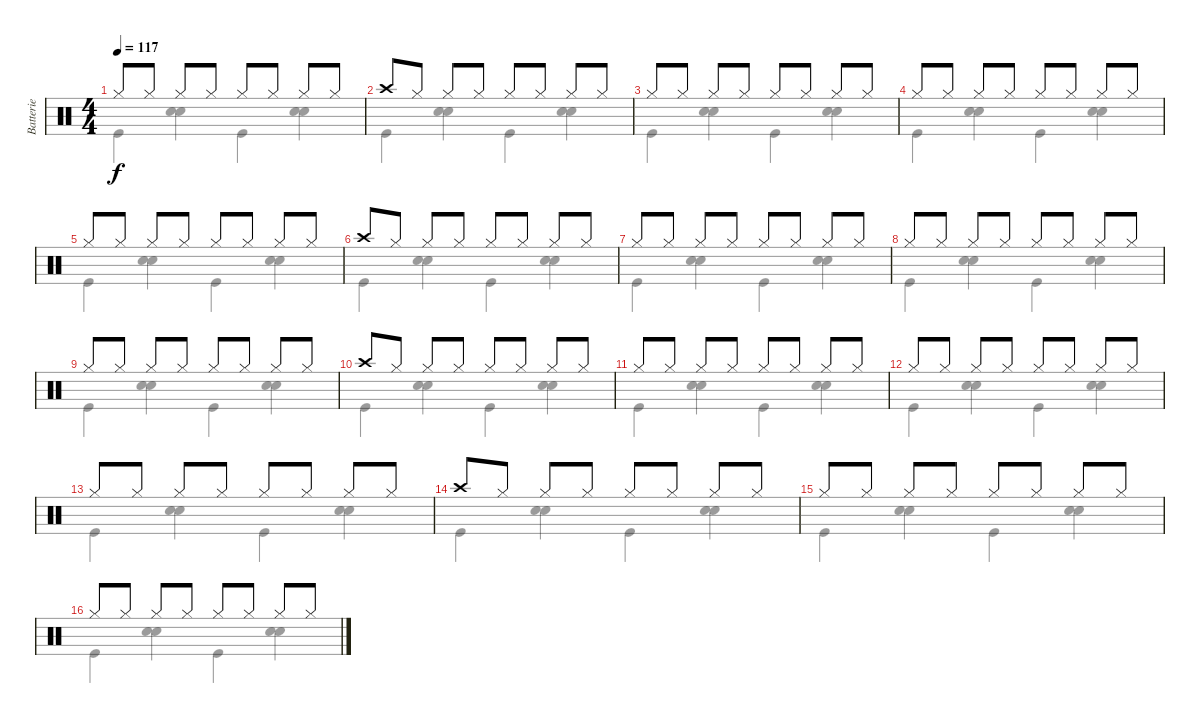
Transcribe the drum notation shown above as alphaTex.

\track ("Batterie" "Batterie") {instrument percussion}
\staff {score}
\articulation defaults
\voice
\ts (4 4)
\tempo 117
\clef neutral
\ks c "Hi-Hat (closed)".8{dy f} "Hi-Hat (closed)".8 "Hi-Hat (closed)".8 "Hi-Hat (closed)".8 "Hi-Hat (closed)".8 "Hi-Hat (closed)".8 "Hi-Hat (closed)".8 "Hi-Hat (closed)".8
|
"Crash high (hit)".8 "Hi-Hat (closed)".8 "Hi-Hat (closed)".8 "Hi-Hat (closed)".8 "Hi-Hat (closed)".8 "Hi-Hat (closed)".8 "Hi-Hat (closed)".8 "Hi-Hat (closed)".8 |
"Hi-Hat (closed)".8 "Hi-Hat (closed)".8 "Hi-Hat (closed)".8 "Hi-Hat (closed)".8 "Hi-Hat (closed)".8 "Hi-Hat (closed)".8 "Hi-Hat (closed)".8 "Hi-Hat (closed)".8 |
"Hi-Hat (closed)".8 "Hi-Hat (closed)".8 "Hi-Hat (closed)".8 "Hi-Hat (closed)".8 "Hi-Hat (closed)".8 "Hi-Hat (closed)".8 "Hi-Hat (closed)".8 "Hi-Hat (closed)".8 |
"Hi-Hat (closed)".8 "Hi-Hat (closed)".8 "Hi-Hat (closed)".8 "Hi-Hat (closed)".8 "Hi-Hat (closed)".8 "Hi-Hat (closed)".8 "Hi-Hat (closed)".8 "Hi-Hat (closed)".8 |
"Crash high (hit)".8 "Hi-Hat (closed)".8 "Hi-Hat (closed)".8 "Hi-Hat (closed)".8 "Hi-Hat (closed)".8 "Hi-Hat (closed)".8 "Hi-Hat (closed)".8 "Hi-Hat (closed)".8 |
"Hi-Hat (closed)".8 "Hi-Hat (closed)".8 "Hi-Hat (closed)".8 "Hi-Hat (closed)".8 "Hi-Hat (closed)".8 "Hi-Hat (closed)".8 "Hi-Hat (closed)".8 "Hi-Hat (closed)".8 |
"Hi-Hat (closed)".8 "Hi-Hat (closed)".8 "Hi-Hat (closed)".8 "Hi-Hat (closed)".8 "Hi-Hat (closed)".8 "Hi-Hat (closed)".8 "Hi-Hat (closed)".8 "Hi-Hat (closed)".8 |
"Hi-Hat (closed)".8 "Hi-Hat (closed)".8 "Hi-Hat (closed)".8 "Hi-Hat (closed)".8 "Hi-Hat (closed)".8 "Hi-Hat (closed)".8 "Hi-Hat (closed)".8 "Hi-Hat (closed)".8 |
"Crash high (hit)".8 "Hi-Hat (closed)".8 "Hi-Hat (closed)".8 "Hi-Hat (closed)".8 "Hi-Hat (closed)".8 "Hi-Hat (closed)".8 "Hi-Hat (closed)".8 "Hi-Hat (closed)".8 |
"Hi-Hat (closed)".8 "Hi-Hat (closed)".8 "Hi-Hat (closed)".8 "Hi-Hat (closed)".8 "Hi-Hat (closed)".8 "Hi-Hat (closed)".8 "Hi-Hat (closed)".8 "Hi-Hat (closed)".8 |
"Hi-Hat (closed)".8 "Hi-Hat (closed)".8 "Hi-Hat (closed)".8 "Hi-Hat (closed)".8 "Hi-Hat (closed)".8 "Hi-Hat (closed)".8 "Hi-Hat (closed)".8 "Hi-Hat (closed)".8 |
"Hi-Hat (closed)".8 "Hi-Hat (closed)".8 "Hi-Hat (closed)".8 "Hi-Hat (closed)".8 "Hi-Hat (closed)".8 "Hi-Hat (closed)".8 "Hi-Hat (closed)".8 "Hi-Hat (closed)".8 |
"Crash high (hit)".8 "Hi-Hat (closed)".8 "Hi-Hat (closed)".8 "Hi-Hat (closed)".8 "Hi-Hat (closed)".8 "Hi-Hat (closed)".8 "Hi-Hat (closed)".8 "Hi-Hat (closed)".8 |
"Hi-Hat (closed)".8 "Hi-Hat (closed)".8 "Hi-Hat (closed)".8 "Hi-Hat (closed)".8 "Hi-Hat (closed)".8 "Hi-Hat (closed)".8 "Hi-Hat (closed)".8 "Hi-Hat (closed)".8 |
"Hi-Hat (closed)".8 "Hi-Hat (closed)".8 "Hi-Hat (closed)".8 "Hi-Hat (closed)".8 "Hi-Hat (closed)".8 "Hi-Hat (closed)".8 "Hi-Hat (closed)".8 "Hi-Hat (closed)".8
\voice
\clef neutral
\ottava regular
\simile none
\ks c "Kick (hit)".4{dy f}
("Hand Clap (hit)" "Snare (hit) 2").4 "Kick (hit)".4 ("Hand Clap (hit)" "Snare (hit) 2").4 |
"Kick (hit)".4 ("Hand Clap (hit)" "Snare (hit) 2").4 "Kick (hit)".4 ("Hand Clap (hit)" "Snare (hit) 2").4 |
"Kick (hit)".4 ("Hand Clap (hit)" "Snare (hit) 2").4 "Kick (hit)".4 ("Hand Clap (hit)" "Snare (hit) 2").4 |
"Kick (hit)".4 ("Hand Clap (hit)" "Snare (hit) 2").4 "Kick (hit)".4 ("Hand Clap (hit)" "Snare (hit) 2").4 |
"Kick (hit)".4 ("Hand Clap (hit)" "Snare (hit) 2").4 "Kick (hit)".4 ("Hand Clap (hit)" "Snare (hit) 2").4 |
"Kick (hit)".4 ("Hand Clap (hit)" "Snare (hit) 2").4 "Kick (hit)".4 ("Hand Clap (hit)" "Snare (hit) 2").4 |
"Kick (hit)".4 ("Hand Clap (hit)" "Snare (hit) 2").4 "Kick (hit)".4 ("Hand Clap (hit)" "Snare (hit) 2").4 |
"Kick (hit)".4 ("Hand Clap (hit)" "Snare (hit) 2").4 "Kick (hit)".4 ("Hand Clap (hit)" "Snare (hit) 2").4 |
"Kick (hit)".4 ("Hand Clap (hit)" "Snare (hit) 2").4 "Kick (hit)".4 ("Hand Clap (hit)" "Snare (hit) 2").4 |
"Kick (hit)".4 ("Hand Clap (hit)" "Snare (hit) 2").4 "Kick (hit)".4 ("Hand Clap (hit)" "Snare (hit) 2").4 |
"Kick (hit)".4 ("Hand Clap (hit)" "Snare (hit) 2").4 "Kick (hit)".4 ("Hand Clap (hit)" "Snare (hit) 2").4 |
"Kick (hit)".4 ("Hand Clap (hit)" "Snare (hit) 2").4 "Kick (hit)".4 ("Hand Clap (hit)" "Snare (hit) 2").4 |
"Kick (hit)".4 ("Hand Clap (hit)" "Snare (hit) 2").4 "Kick (hit)".4 ("Hand Clap (hit)" "Snare (hit) 2").4 |
"Kick (hit)".4 ("Hand Clap (hit)" "Snare (hit) 2").4 "Kick (hit)".4 ("Hand Clap (hit)" "Snare (hit) 2").4 |
"Kick (hit)".4 ("Hand Clap (hit)" "Snare (hit) 2").4 "Kick (hit)".4 ("Hand Clap (hit)" "Snare (hit) 2").4 |
"Kick (hit)".4 ("Hand Clap (hit)" "Snare (hit) 2").4 "Kick (hit)".4 ("Hand Clap (hit)" "Snare (hit) 2").4
